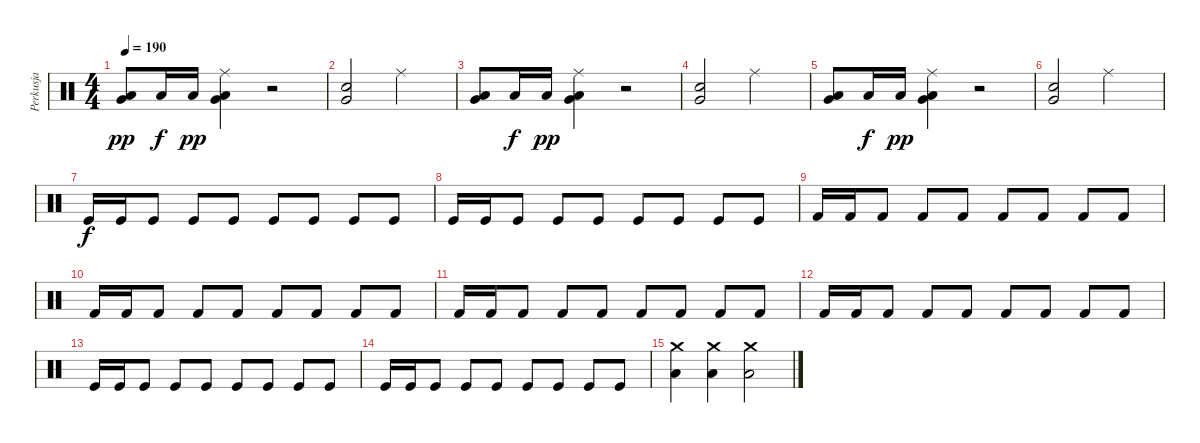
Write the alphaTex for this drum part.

\track ("Perkusja" "Perkusja") {instrument percussion}
\staff {score}
\articulation defaults
\ts (4 4)
\tempo 190
\clef neutral
\ks c
("Very Low Tom (hit)" "Low Floor Tom (hit)").8{dy pp} "Low Floor Tom (hit)".16{dy f} "Low Floor Tom (hit)".16{dy pp} ("Ride (middle)" "Very Low Tom (hit)" "Low Floor Tom (hit)").4 r.2 |
("Snare (hit) 2" "Very Low Tom (hit)").2 "Ride (middle)".2 |
("Very Low Tom (hit)" "Low Floor Tom (hit)").8 "Low Floor Tom (hit)".16{dy f} "Low Floor Tom (hit)".16{dy pp} ("Ride (middle)" "Very Low Tom (hit)" "Low Floor Tom (hit)").4 r.2 |
("Snare (hit) 2" "Very Low Tom (hit)").2 "Ride (middle)".2 |
("Very Low Tom (hit)" "Low Floor Tom (hit)").8 "Low Floor Tom (hit)".16{dy f} "Low Floor Tom (hit)".16{dy pp} ("Ride (middle)" "Very Low Tom (hit)" "Low Floor Tom (hit)").4 r.2 |
("Snare (hit) 2" "Very Low Tom (hit)").2 "Ride (middle)".2 |
"Kick (hit)".16{dy f volume 12} "Kick (hit)".16 "Kick (hit)".8 "Kick (hit)".8 "Kick (hit)".8 "Kick (hit)".8 "Kick (hit)".8 "Kick (hit)".8 "Kick (hit)".8 |
"Kick (hit)".16 "Kick (hit)".16 "Kick (hit)".8 "Kick (hit)".8 "Kick (hit)".8 "Kick (hit)".8 "Kick (hit)".8 "Kick (hit)".8 "Kick (hit)".8 |
"Kick (hit) 2".16 "Kick (hit) 2".16 "Kick (hit) 2".8 "Kick (hit) 2".8 "Kick (hit) 2".8 "Kick (hit) 2".8 "Kick (hit) 2".8 "Kick (hit) 2".8 "Kick (hit) 2".8 |
"Kick (hit) 2".16 "Kick (hit) 2".16 "Kick (hit) 2".8 "Kick (hit) 2".8 "Kick (hit) 2".8 "Kick (hit) 2".8 "Kick (hit) 2".8 "Kick (hit) 2".8 "Kick (hit) 2".8 |
"Kick (hit) 2".16 "Kick (hit) 2".16 "Kick (hit) 2".8 "Kick (hit) 2".8 "Kick (hit) 2".8 "Kick (hit) 2".8 "Kick (hit) 2".8 "Kick (hit) 2".8 "Kick (hit) 2".8 |
"Kick (hit) 2".16 "Kick (hit) 2".16 "Kick (hit) 2".8 "Kick (hit) 2".8 "Kick (hit) 2".8 "Kick (hit) 2".8 "Kick (hit) 2".8 "Kick (hit) 2".8 "Kick (hit) 2".8 |
"Kick (hit)".16 "Kick (hit)".16 "Kick (hit)".8 "Kick (hit)".8 "Kick (hit)".8 "Kick (hit)".8 "Kick (hit)".8 "Kick (hit)".8 "Kick (hit)".8 |
"Kick (hit)".16 "Kick (hit)".16 "Kick (hit)".8 "Kick (hit)".8 "Kick (hit)".8 "Kick (hit)".8 "Kick (hit)".8 "Kick (hit)".8 "Kick (hit)".8 |
("Crash medium (hit)" "Low Tom (hit)").4 ("Crash medium (hit)" "Low Tom (hit)").4 ("Crash medium (hit)" "Low Tom (hit)").2
